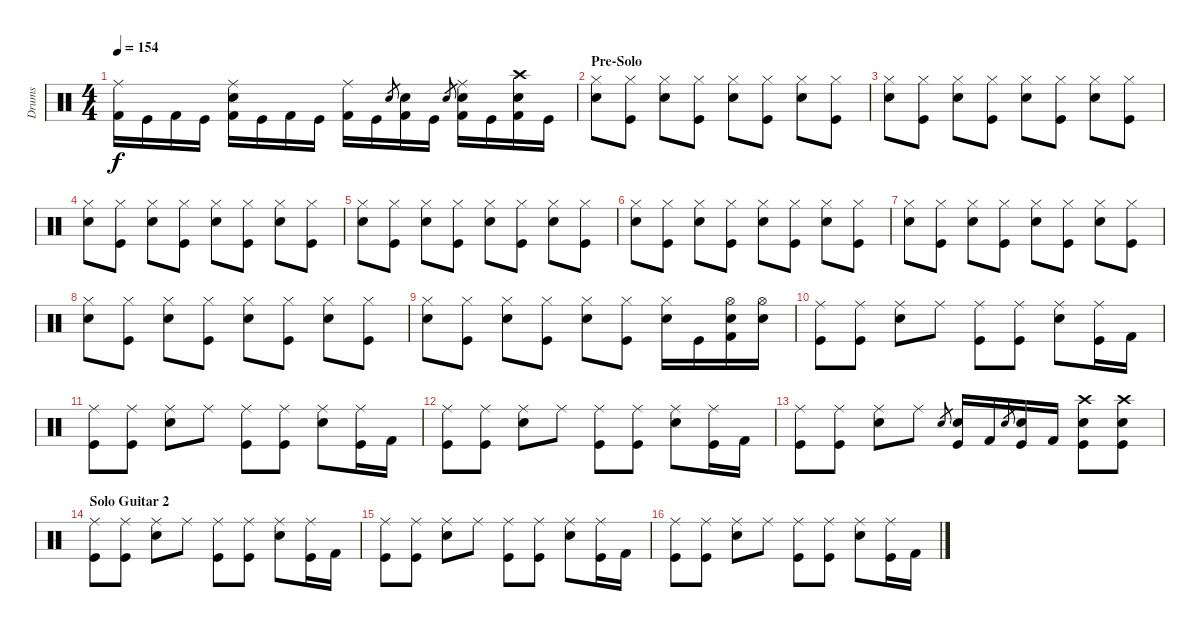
\track ("Drums" "Drums") {instrument percussion}
\staff {score}
\articulation defaults
\ts (4 4)
\tempo 154
\clef neutral
\ks c
("Ride (middle)" "Kick (hit) 2").16{dy f} "Kick (hit)".16 "Kick (hit) 2".16 "Kick (hit)".16 ("Ride (middle)" "Electric Snare (hit)" "Kick (hit) 2").16 "Kick (hit)".16 "Kick (hit) 2".16 "Kick (hit)".16 ("Ride (middle)" "Kick (hit) 2").16 "Kick (hit)".16 "Electric Snare (hit)".8{gr} ("Electric Snare (hit)" "Kick (hit) 2").16 "Kick (hit)".16 "Electric Snare (hit)".8{gr} ("Ride (middle)" "Electric Snare (hit)" "Kick (hit) 2").16 "Kick (hit)".16 ("Crash high (hit)" "Electric Snare (hit)" "Kick (hit) 2").16 "Kick (hit)".16 |
\section ("" "Pre-Solo")
("Hi-Hat (closed)" "Electric Snare (hit)").8 ("Hi-Hat (closed)" "Kick (hit)").8 ("Hi-Hat (closed)" "Electric Snare (hit)").8 ("Hi-Hat (closed)" "Kick (hit)").8 ("Hi-Hat (closed)" "Electric Snare (hit)").8 ("Hi-Hat (closed)" "Kick (hit)").8 ("Hi-Hat (closed)" "Electric Snare (hit)").8 ("Hi-Hat (closed)" "Kick (hit)").8 |
("Hi-Hat (closed)" "Electric Snare (hit)").8 ("Hi-Hat (closed)" "Kick (hit)").8 ("Hi-Hat (closed)" "Electric Snare (hit)").8 ("Hi-Hat (closed)" "Kick (hit)").8 ("Hi-Hat (closed)" "Electric Snare (hit)").8 ("Hi-Hat (closed)" "Kick (hit)").8 ("Hi-Hat (closed)" "Electric Snare (hit)").8 ("Hi-Hat (closed)" "Kick (hit)").8 |
("Hi-Hat (closed)" "Electric Snare (hit)").8 ("Hi-Hat (closed)" "Kick (hit)").8 ("Hi-Hat (closed)" "Electric Snare (hit)").8 ("Hi-Hat (closed)" "Kick (hit)").8 ("Hi-Hat (closed)" "Electric Snare (hit)").8 ("Hi-Hat (closed)" "Kick (hit)").8 ("Hi-Hat (closed)" "Electric Snare (hit)").8 ("Hi-Hat (closed)" "Kick (hit)").8 |
("Hi-Hat (closed)" "Electric Snare (hit)").8 ("Hi-Hat (closed)" "Kick (hit)").8 ("Hi-Hat (closed)" "Electric Snare (hit)").8 ("Hi-Hat (closed)" "Kick (hit)").8 ("Hi-Hat (closed)" "Electric Snare (hit)").8 ("Hi-Hat (closed)" "Kick (hit)").8 ("Hi-Hat (closed)" "Electric Snare (hit)").8 ("Hi-Hat (closed)" "Kick (hit)").8 |
("Hi-Hat (closed)" "Electric Snare (hit)").8 ("Hi-Hat (closed)" "Kick (hit)").8 ("Hi-Hat (closed)" "Electric Snare (hit)").8 ("Hi-Hat (closed)" "Kick (hit)").8 ("Hi-Hat (closed)" "Electric Snare (hit)").8 ("Hi-Hat (closed)" "Kick (hit)").8 ("Hi-Hat (closed)" "Electric Snare (hit)").8 ("Hi-Hat (closed)" "Kick (hit)").8 |
("Hi-Hat (closed)" "Electric Snare (hit)").8 ("Hi-Hat (closed)" "Kick (hit)").8 ("Hi-Hat (closed)" "Electric Snare (hit)").8 ("Hi-Hat (closed)" "Kick (hit)").8 ("Hi-Hat (closed)" "Electric Snare (hit)").8 ("Hi-Hat (closed)" "Kick (hit)").8 ("Hi-Hat (closed)" "Electric Snare (hit)").8 ("Hi-Hat (closed)" "Kick (hit)").8 |
("Hi-Hat (closed)" "Electric Snare (hit)").8 ("Hi-Hat (closed)" "Kick (hit)").8 ("Hi-Hat (closed)" "Electric Snare (hit)").8 ("Hi-Hat (closed)" "Kick (hit)").8 ("Hi-Hat (closed)" "Electric Snare (hit)").8 ("Hi-Hat (closed)" "Kick (hit)").8 ("Hi-Hat (closed)" "Electric Snare (hit)").8 ("Hi-Hat (closed)" "Kick (hit)").8 |
("Hi-Hat (closed)" "Electric Snare (hit)").8 ("Hi-Hat (closed)" "Kick (hit)").8 ("Hi-Hat (closed)" "Electric Snare (hit)").8 ("Hi-Hat (closed)" "Kick (hit)").8 ("Hi-Hat (closed)" "Electric Snare (hit)").8 ("Hi-Hat (closed)" "Kick (hit)").8 ("Hi-Hat (closed)" "Electric Snare (hit)").16 "Kick (hit)".16 ("Hi-Hat (open)" "Electric Snare (hit)" "Kick (hit) 2").16 ("Hi-Hat (open)" "Electric Snare (hit)").16 |
("Ride (middle)" "Kick (hit)").8 ("Ride (middle)" "Kick (hit)").8 ("Ride (middle)" "Electric Snare (hit)").8 "Ride (middle)".8 ("Ride (middle)" "Kick (hit)").8 ("Ride (middle)" "Kick (hit)").8 ("Ride (middle)" "Electric Snare (hit)").8 ("Ride (middle)" "Kick (hit)").16 "Kick (hit) 2".16 |
("Ride (middle)" "Kick (hit)").8 ("Ride (middle)" "Kick (hit)").8 ("Ride (middle)" "Electric Snare (hit)").8 "Ride (middle)".8 ("Ride (middle)" "Kick (hit)").8 ("Ride (middle)" "Kick (hit)").8 ("Ride (middle)" "Electric Snare (hit)").8 ("Ride (middle)" "Kick (hit)").16 "Kick (hit) 2".16 |
("Ride (middle)" "Kick (hit)").8 ("Ride (middle)" "Kick (hit)").8 ("Ride (middle)" "Electric Snare (hit)").8 "Ride (middle)".8 ("Ride (middle)" "Kick (hit)").8 ("Ride (middle)" "Kick (hit)").8 ("Ride (middle)" "Electric Snare (hit)").8 ("Ride (middle)" "Kick (hit)").16 "Kick (hit) 2".16 |
("Ride (middle)" "Kick (hit)").8 ("Ride (middle)" "Kick (hit)").8 ("Ride (middle)" "Electric Snare (hit)").8 "Ride (middle)".8 "Electric Snare (hit)".8{gr} ("Electric Snare (hit)" "Kick (hit)").16 "Kick (hit) 2".16 "Electric Snare (hit)".8{gr} ("Electric Snare (hit)" "Kick (hit)").16 "Kick (hit) 2".16 ("Crash high (hit)" "Electric Snare (hit)" "Kick (hit)").8 ("Crash high (hit)" "Electric Snare (hit)" "Kick (hit)").8 |
\section ("" "Solo Guitar 2")
("Ride (middle)" "Kick (hit)").8 ("Ride (middle)" "Kick (hit)").8 ("Ride (middle)" "Electric Snare (hit)").8 "Ride (middle)".8 ("Ride (middle)" "Kick (hit)").8 ("Ride (middle)" "Kick (hit)").8 ("Ride (middle)" "Electric Snare (hit)").8 ("Ride (middle)" "Kick (hit)").16 "Kick (hit) 2".16 |
("Ride (middle)" "Kick (hit)").8 ("Ride (middle)" "Kick (hit)").8 ("Ride (middle)" "Electric Snare (hit)").8 "Ride (middle)".8 ("Ride (middle)" "Kick (hit)").8 ("Ride (middle)" "Kick (hit)").8 ("Ride (middle)" "Electric Snare (hit)").8 ("Ride (middle)" "Kick (hit)").16 "Kick (hit) 2".16 |
("Ride (middle)" "Kick (hit)").8 ("Ride (middle)" "Kick (hit)").8 ("Ride (middle)" "Electric Snare (hit)").8 "Ride (middle)".8 ("Ride (middle)" "Kick (hit)").8 ("Ride (middle)" "Kick (hit)").8 ("Ride (middle)" "Electric Snare (hit)").8 ("Ride (middle)" "Kick (hit)").16 "Kick (hit) 2".16
